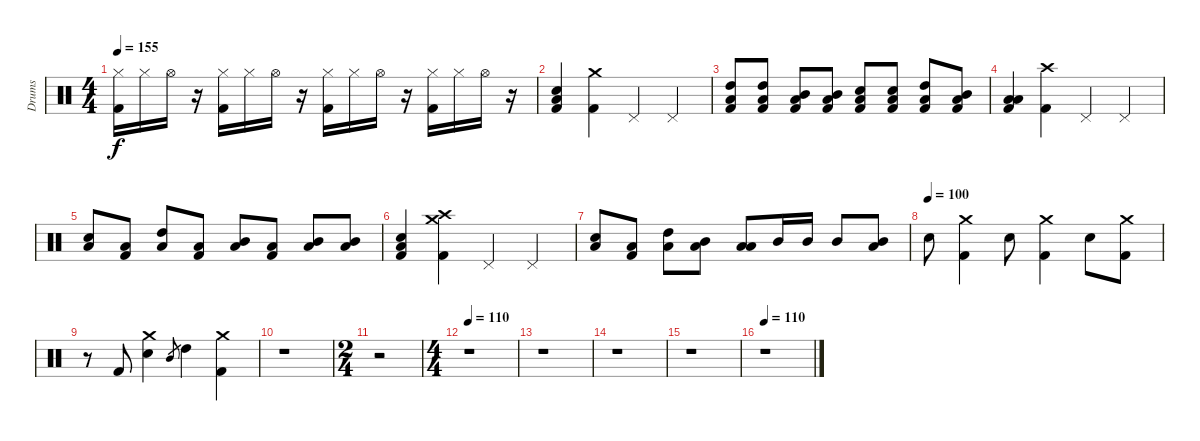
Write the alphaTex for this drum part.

\track ("Drums" "Drums") {instrument percussion}
\staff {score}
\articulation defaults
\ts (4 4)
\tempo 155
\clef neutral
\ks c
("Hi-Hat (closed)" "Kick (hit) 2").16{dy f} "Hi-Hat (closed)".16 "Hi-Hat (open)".16 r.16 ("Hi-Hat (closed)" "Kick (hit) 2").16 "Hi-Hat (closed)".16 "Hi-Hat (open)".16 r.16 ("Hi-Hat (closed)" "Kick (hit) 2").16 "Hi-Hat (closed)".16 "Hi-Hat (open)".16 r.16 ("Hi-Hat (closed)" "Kick (hit) 2").16 "Hi-Hat (closed)".16 "Hi-Hat (open)".16 r.16 |
("Kick (hit) 2" "Electric Snare (hit)" "Low Tom (hit)").4 ("Crash medium (hit)" "Kick (hit) 2").4 "Pedal Hi-Hat (hit)".4 "Pedal Hi-Hat (hit)".4 |
("Kick (hit) 2" "Low Tom (hit)" "High Tom (hit)").8 ("Kick (hit) 2" "Low Tom (hit)" "High Tom (hit)").8 ("Kick (hit) 2" "Low Tom (hit)" "Mid Tom (hit)").8 ("Kick (hit) 2" "Low Tom (hit)" "Mid Tom (hit)").8 ("Kick (hit) 2" "Electric Snare (hit)" "Low Tom (hit)").8 ("Kick (hit) 2" "Electric Snare (hit)" "Low Tom (hit)").8 ("Kick (hit) 2" "Low Tom (hit)" "High Tom (hit)").8 ("Kick (hit) 2" "Low Tom (hit)" "Mid Tom (hit)").8 |
("Kick (hit) 2" "Low Tom (hit)" "Low Tom (hit)").4 ("Crash high (hit)" "Kick (hit) 2").4 "Pedal Hi-Hat (hit)".4 "Pedal Hi-Hat (hit)".4 |
("Electric Snare (hit)" "Low Tom (hit)").8 ("Kick (hit) 2" "Low Tom (hit)").8 ("Low Tom (hit)" "High Tom (hit)").8 ("Kick (hit) 2" "Low Tom (hit)").8 ("Low Tom (hit)" "Mid Tom (hit)").8 ("Kick (hit) 2" "Low Tom (hit)").8 ("Low Tom (hit)" "Mid Tom (hit)").8 ("Low Tom (hit)" "Mid Tom (hit)").8 |
("Kick (hit) 2" "Electric Snare (hit)" "Low Tom (hit)").4 ("Crash medium (hit)" "Kick (hit) 2" "Crash high (hit)").4 "Pedal Hi-Hat (hit)".4 "Pedal Hi-Hat (hit)".4 |
("Electric Snare (hit)" "Low Tom (hit)").8 ("Kick (hit) 2" "Low Tom (hit)").8 ("Low Tom (hit)" "High Tom (hit)").8 ("Low Tom (hit)" "Mid Tom (hit)").8 ("Low Tom (hit)" "Low Tom (hit)").8 "Mid Tom (hit)".16 "Mid Tom (hit)".16 "Mid Tom (hit)".8 ("Low Tom (hit)" "Mid Tom (hit)").8 |
\tempo (100)
"Electric Snare (hit)".8 ("Crash medium (hit)" "Kick (hit) 2").4 "Electric Snare (hit)".8 ("Crash medium (hit)" "Kick (hit) 2").4 "Electric Snare (hit)".8 ("Crash medium (hit)" "Kick (hit) 2").8 |
r.8 "Kick (hit) 2".8 ("Crash medium (hit)" "Electric Snare (hit)").4 "Mid Tom (hit)".8{gr} "High Tom (hit)".4 ("Crash medium (hit)" "Kick (hit) 2").4 |
r.1 |
\ts (2 4)
r.2 |
\ts (4 4)
\tempo 110
r.1 |
r.1 |
r.1 |
r.1 |
\tempo 110
r.1
